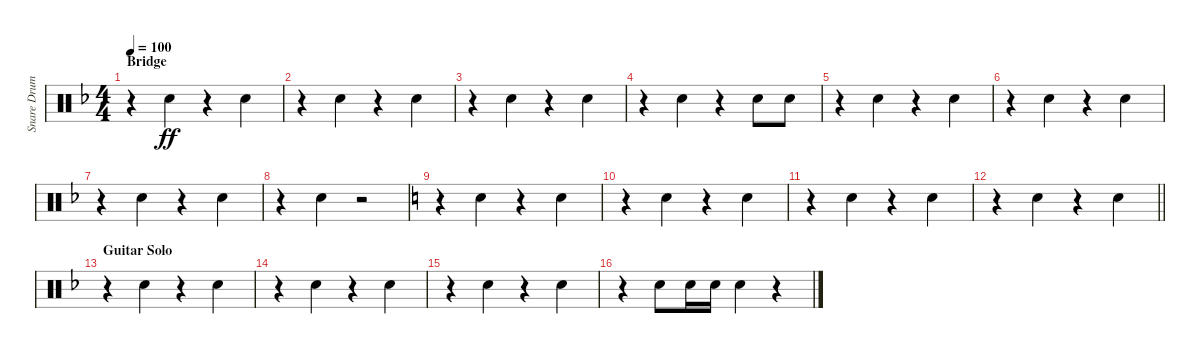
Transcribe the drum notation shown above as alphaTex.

\track ("Snare Drum" "Snare Drum") {instrument percussion}
\staff {score}
\articulation defaults
\ts (4 4)
\section ("" "Bridge")
\tempo 100
\clef neutral
\ks dminor
r.4{dy ff beam merge} "Electric Snare (hit)".4 r.4{beam merge} "Electric Snare (hit)".4 |
r.4{beam merge} "Electric Snare (hit)".4 r.4{beam merge} "Electric Snare (hit)".4 |
r.4{beam merge} "Electric Snare (hit)".4 r.4{beam merge} "Electric Snare (hit)".4 |
r.4{beam merge} "Electric Snare (hit)".4 r.4{beam merge} "Electric Snare (hit)".8 "Electric Snare (hit)".8 |
r.4{beam merge} "Electric Snare (hit)".4 r.4{beam merge} "Electric Snare (hit)".4 |
r.4{beam merge} "Electric Snare (hit)".4 r.4{beam merge} "Electric Snare (hit)".4 |
r.4{beam merge} "Electric Snare (hit)".4 r.4{beam merge} "Electric Snare (hit)".4 |
r.4 "Electric Snare (hit)".4 r.2 |
\ks aminor
r.4{beam merge} "Electric Snare (hit)".4 r.4{beam merge} "Electric Snare (hit)".4 |
r.4{beam merge} "Electric Snare (hit)".4 r.4{beam merge} "Electric Snare (hit)".4 |
r.4{beam merge} "Electric Snare (hit)".4 r.4{beam merge} "Electric Snare (hit)".4 |
\barLineRight lightlight
r.4{beam merge} "Electric Snare (hit)".4 r.4{beam merge} "Electric Snare (hit)".4 |
\section ("" "Guitar Solo")
\ks dminor
r.4{beam merge} "Electric Snare (hit)".4 r.4{beam merge} "Electric Snare (hit)".4 |
r.4{beam merge} "Electric Snare (hit)".4 r.4{beam merge} "Electric Snare (hit)".4 |
r.4{beam merge} "Electric Snare (hit)".4 r.4{beam merge} "Electric Snare (hit)".4 |
r.4{beam split} "Electric Snare (hit)".8 "Electric Snare (hit)".16 "Electric Snare (hit)".16 "Electric Snare (hit)".4 r.4
